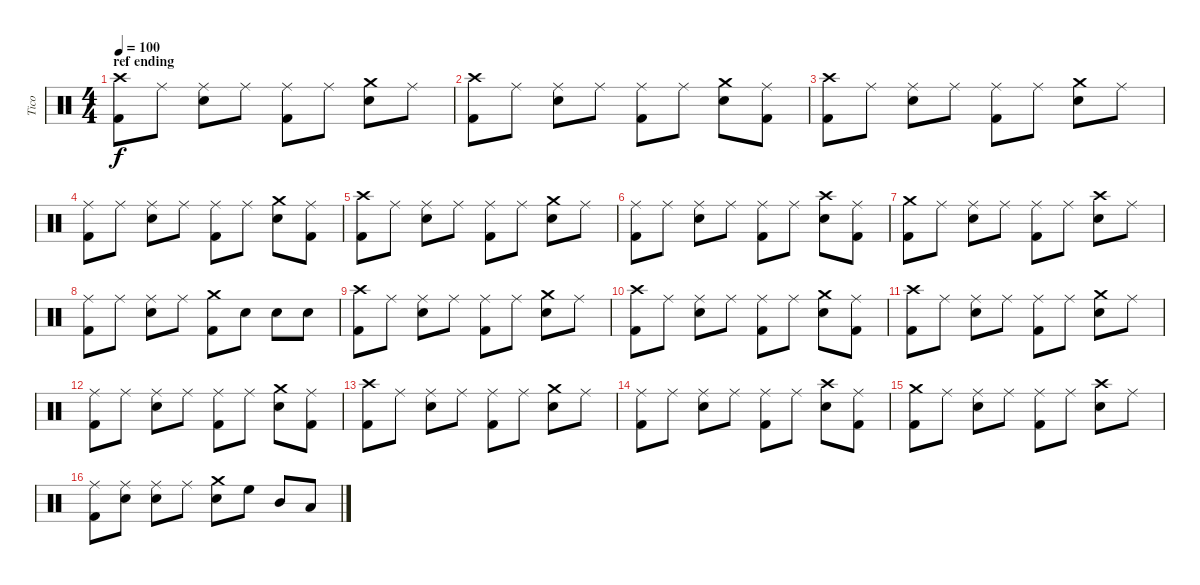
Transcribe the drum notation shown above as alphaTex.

\track ("Tico" "Tico") {instrument percussion}
\staff {score}
\articulation defaults
\ts (4 4)
\section ("" "ref ending")
\tempo 100
\clef neutral
\ks c
("Crash high (hit)" "Kick (hit) 2").8{dy f} "Ride (middle)".8 ("Ride (middle)" "Snare (hit) 2").8 "Ride (middle)".8 ("Ride (middle)" "Kick (hit) 2").8 "Ride (middle)".8 ("Crash medium (hit)" "Snare (hit) 2").8 "Ride (middle)".8 |
("Crash high (hit)" "Kick (hit) 2").8 "Ride (middle)".8 ("Ride (middle)" "Snare (hit) 2").8 "Ride (middle)".8 ("Ride (middle)" "Kick (hit) 2").8 "Ride (middle)".8 ("Crash medium (hit)" "Snare (hit) 2").8 ("Ride (middle)" "Kick (hit) 2").8 |
("Crash high (hit)" "Kick (hit) 2").8 "Ride (middle)".8 ("Ride (middle)" "Snare (hit) 2").8 "Ride (middle)".8 ("Ride (middle)" "Kick (hit) 2").8 "Ride (middle)".8 ("Crash medium (hit)" "Snare (hit) 2").8 "Ride (middle)".8 |
("Ride (middle)" "Kick (hit) 2").8 "Ride (middle)".8 ("Ride (middle)" "Snare (hit) 2").8 "Ride (middle)".8 ("Ride (middle)" "Kick (hit) 2").8 "Ride (middle)".8 ("Crash medium (hit)" "Snare (hit) 2").8 ("Ride (middle)" "Kick (hit) 2").8 |
("Crash high (hit)" "Kick (hit) 2").8 "Ride (middle)".8 ("Ride (middle)" "Snare (hit) 2").8 "Ride (middle)".8 ("Ride (middle)" "Kick (hit) 2").8 "Ride (middle)".8 ("Crash medium (hit)" "Snare (hit) 2").8 "Ride (middle)".8 |
("Ride (middle)" "Kick (hit) 2").8 "Ride (middle)".8 ("Ride (middle)" "Snare (hit) 2").8 "Ride (middle)".8 ("Ride (middle)" "Kick (hit) 2").8 "Ride (middle)".8 ("Crash high (hit)" "Snare (hit) 2").8 ("Ride (middle)" "Kick (hit) 2").8 |
("Crash medium (hit)" "Kick (hit) 2").8 "Ride (middle)".8 ("Ride (middle)" "Snare (hit) 2").8 "Ride (middle)".8 ("Ride (middle)" "Kick (hit) 2").8 "Ride (middle)".8 ("Crash high (hit)" "Snare (hit) 2").8 "Ride (middle)".8 |
("Ride (middle)" "Kick (hit) 2").8 "Ride (middle)".8 ("Ride (middle)" "Snare (hit) 2").8 "Ride (middle)".8 ("Crash medium (hit)" "Kick (hit) 2").8 "Snare (hit) 2".8 "Snare (hit) 2".8 "Snare (hit) 2".8 |
("Crash high (hit)" "Kick (hit) 2").8 "Ride (middle)".8 ("Ride (middle)" "Snare (hit) 2").8 "Ride (middle)".8 ("Ride (middle)" "Kick (hit) 2").8 "Ride (middle)".8 ("Crash medium (hit)" "Snare (hit) 2").8 "Ride (middle)".8 |
("Crash high (hit)" "Kick (hit) 2").8 "Ride (middle)".8 ("Ride (middle)" "Snare (hit) 2").8 "Ride (middle)".8 ("Ride (middle)" "Kick (hit) 2").8 "Ride (middle)".8 ("Crash medium (hit)" "Snare (hit) 2").8 ("Ride (middle)" "Kick (hit) 2").8 |
("Crash high (hit)" "Kick (hit) 2").8 "Ride (middle)".8 ("Ride (middle)" "Snare (hit) 2").8 "Ride (middle)".8 ("Ride (middle)" "Kick (hit) 2").8 "Ride (middle)".8 ("Crash medium (hit)" "Snare (hit) 2").8 "Ride (middle)".8 |
("Ride (middle)" "Kick (hit) 2").8 "Ride (middle)".8 ("Ride (middle)" "Snare (hit) 2").8 "Ride (middle)".8 ("Ride (middle)" "Kick (hit) 2").8 "Ride (middle)".8 ("Crash medium (hit)" "Snare (hit) 2").8 ("Ride (middle)" "Kick (hit) 2").8 |
("Crash high (hit)" "Kick (hit) 2").8 "Ride (middle)".8 ("Ride (middle)" "Snare (hit) 2").8 "Ride (middle)".8 ("Ride (middle)" "Kick (hit) 2").8 "Ride (middle)".8 ("Crash medium (hit)" "Snare (hit) 2").8 "Ride (middle)".8 |
("Ride (middle)" "Kick (hit) 2").8 "Ride (middle)".8 ("Ride (middle)" "Snare (hit) 2").8 "Ride (middle)".8 ("Ride (middle)" "Kick (hit) 2").8 "Ride (middle)".8 ("Crash high (hit)" "Snare (hit) 2").8 ("Ride (middle)" "Kick (hit) 2").8 |
("Crash medium (hit)" "Kick (hit) 2").8 "Ride (middle)".8 ("Ride (middle)" "Snare (hit) 2").8 "Ride (middle)".8 ("Ride (middle)" "Kick (hit) 2").8 "Ride (middle)".8 ("Crash high (hit)" "Snare (hit) 2").8 "Ride (middle)".8 |
("Ride (middle)" "Kick (hit) 2").8 ("Ride (middle)" "Snare (hit) 2").8 ("Ride (middle)" "Snare (hit) 2").8 "Ride (middle)".8 ("Crash medium (hit)" "Snare (hit) 2").8 "High Floor Tom (hit)".8 "Mid Tom (hit)".8 "Low Tom (hit)".8
